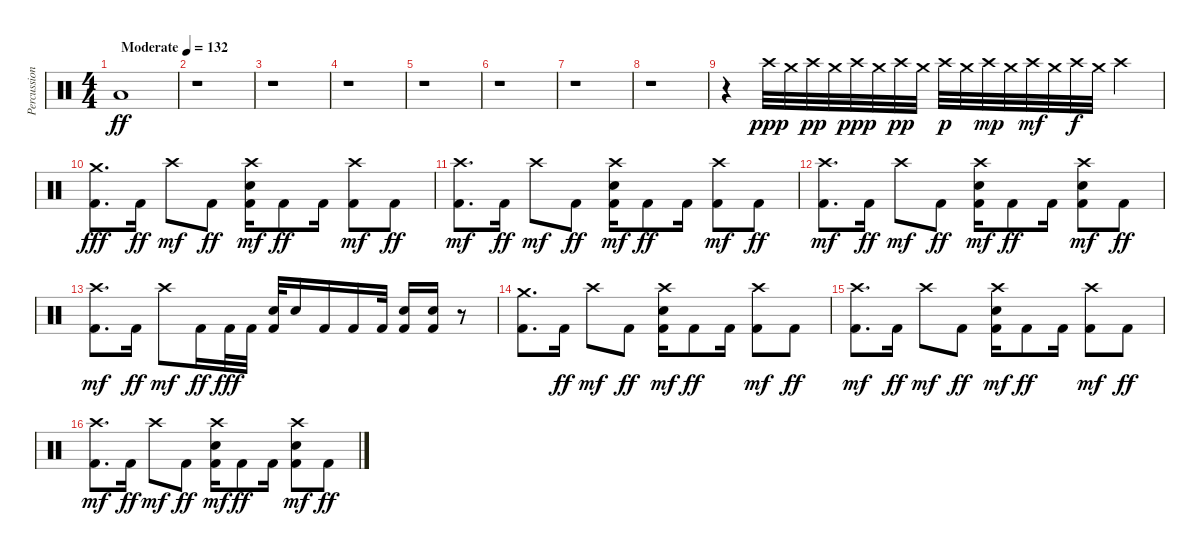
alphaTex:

\track ("Percussion" "Percussion") {instrument percussion}
\staff {score}
\articulation defaults
\ts (4 4)
\tempo (132 "Moderate")
\clef neutral
\ks c "Low Tom (hit)".1{dy ff}
|
r.1 |
r.1 |
r.1 |
r.1 |
r.1 |
r.1 |
r.1 |
r.4 "Crash high (hit)".32{dy ppp} "Crash medium (hit)".32 "Crash high (hit)".32{dy pp} "Crash medium (hit)".32 "Crash high (hit)".32{dy ppp} "Crash medium (hit)".32 "Crash high (hit)".32{dy pp} "Crash medium (hit)".32 "Crash high (hit)".32{dy p} "Crash medium (hit)".32 "Crash high (hit)".32{dy mp} "Crash medium (hit)".32 "Crash high (hit)".32{dy mf} "Crash medium (hit)".32 "Crash high (hit)".32{dy f} "Crash medium (hit)".32 "Crash high (hit)".4 |
("Kick (hit) 2" "Crash medium (hit)").8{d dy fff} "Kick (hit) 2".16{dy ff} "Crash high (hit)".8{dy mf} "Kick (hit) 2".8{dy ff} ("Kick (hit) 2" "Electric Snare (hit)" "Crash high (hit)").16{dy mf} "Kick (hit) 2".8{dy ff} "Kick (hit) 2".16 ("Kick (hit) 2" "Crash high (hit)").8{dy mf} "Kick (hit) 2".8{dy ff} |
("Kick (hit) 2" "Crash high (hit)").8{d dy mf} "Kick (hit) 2".16{dy ff} "Crash high (hit)".8{dy mf} "Kick (hit) 2".8{dy ff} ("Kick (hit) 2" "Electric Snare (hit)" "Crash high (hit)").16{dy mf} "Kick (hit) 2".8{dy ff} "Kick (hit) 2".16 ("Kick (hit) 2" "Crash high (hit)").8{dy mf} "Kick (hit) 2".8{dy ff} |
("Kick (hit) 2" "Crash high (hit)").8{d dy mf} "Kick (hit) 2".16{dy ff} "Crash high (hit)".8{dy mf} "Kick (hit) 2".8{dy ff} ("Kick (hit) 2" "Electric Snare (hit)" "Crash high (hit)").16{dy mf} "Kick (hit) 2".8{dy ff} "Kick (hit) 2".16 ("Kick (hit) 2" "Electric Snare (hit)" "Crash high (hit)").8{dy mf} "Kick (hit) 2".8{dy ff} |
("Kick (hit) 2" "Crash high (hit)").8{d dy mf} "Kick (hit) 2".16{dy ff} "Crash high (hit)".8{dy mf} "Kick (hit) 2".16{dy ff} "Kick (hit) 2".32{dy fff} "Kick (hit) 2".32 ("Kick (hit) 2" "Electric Snare (hit)").32 "Electric Snare (hit)".16 "Kick (hit) 2".16 "Kick (hit) 2".16 "Kick (hit) 2".32 ("Kick (hit) 2" "Electric Snare (hit)").16 ("Kick (hit) 2" "Electric Snare (hit)").16 r.8 |
("Kick (hit) 2" "Crash medium (hit)").8{d} "Kick (hit) 2".16{dy ff} "Crash high (hit)".8{dy mf} "Kick (hit) 2".8{dy ff} ("Kick (hit) 2" "Electric Snare (hit)" "Crash high (hit)").16{dy mf} "Kick (hit) 2".8{dy ff} "Kick (hit) 2".16 ("Kick (hit) 2" "Crash high (hit)").8{dy mf} "Kick (hit) 2".8{dy ff} |
("Kick (hit) 2" "Crash high (hit)").8{d dy mf} "Kick (hit) 2".16{dy ff} "Crash high (hit)".8{dy mf} "Kick (hit) 2".8{dy ff} ("Kick (hit) 2" "Electric Snare (hit)" "Crash high (hit)").16{dy mf} "Kick (hit) 2".8{dy ff} "Kick (hit) 2".16 ("Kick (hit) 2" "Crash high (hit)").8{dy mf} "Kick (hit) 2".8{dy ff} |
("Kick (hit) 2" "Crash high (hit)").8{d dy mf} "Kick (hit) 2".16{dy ff} "Crash high (hit)".8{dy mf} "Kick (hit) 2".8{dy ff} ("Kick (hit) 2" "Electric Snare (hit)" "Crash high (hit)").16{dy mf} "Kick (hit) 2".8{dy ff} "Kick (hit) 2".16 ("Kick (hit) 2" "Electric Snare (hit)" "Crash high (hit)").8{dy mf} "Kick (hit) 2".8{dy ff}
